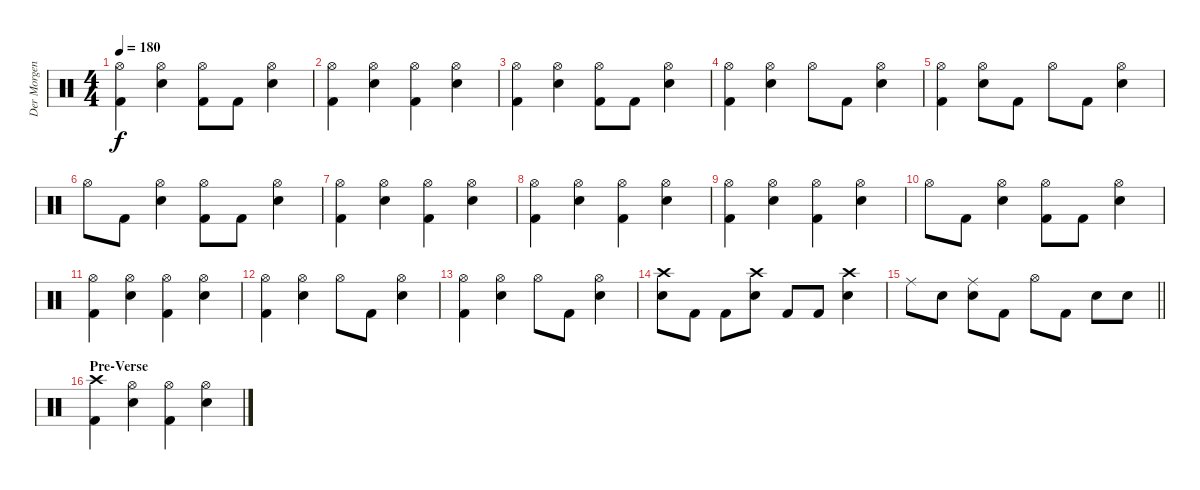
\track ("Der Morgenstern" "Der Morgen") {instrument percussion}
\staff {score}
\articulation defaults
\ts (4 4)
\tempo 180
\clef neutral
\ks c
("Hi-Hat (open)" "Kick (hit) 2").4{dy f} ("Hi-Hat (open)" "Electric Snare (hit)").4 ("Hi-Hat (open)" "Kick (hit) 2").8 "Kick (hit) 2".8 ("Hi-Hat (open)" "Electric Snare (hit)").4 |
("Hi-Hat (open)" "Kick (hit) 2").4 ("Hi-Hat (open)" "Electric Snare (hit)").4 ("Hi-Hat (open)" "Kick (hit) 2").4 ("Hi-Hat (open)" "Electric Snare (hit)").4 |
("Hi-Hat (open)" "Kick (hit) 2").4 ("Hi-Hat (open)" "Electric Snare (hit)").4 ("Hi-Hat (open)" "Kick (hit) 2").8 "Kick (hit) 2".8 ("Hi-Hat (open)" "Electric Snare (hit)").4 |
("Hi-Hat (open)" "Kick (hit) 2").4 ("Hi-Hat (open)" "Electric Snare (hit)").4 "Hi-Hat (open)".8 "Kick (hit) 2".8 ("Hi-Hat (open)" "Electric Snare (hit)").4 |
("Hi-Hat (open)" "Kick (hit) 2").4 ("Hi-Hat (open)" "Electric Snare (hit)").8 "Kick (hit) 2".8 "Hi-Hat (open)".8 "Kick (hit) 2".8 ("Hi-Hat (open)" "Electric Snare (hit)").4 |
"Hi-Hat (open)".8 "Kick (hit) 2".8 ("Hi-Hat (open)" "Electric Snare (hit)").4 ("Hi-Hat (open)" "Kick (hit) 2").8 "Kick (hit) 2".8 ("Hi-Hat (open)" "Electric Snare (hit)").4 |
("Hi-Hat (open)" "Kick (hit) 2").4 ("Hi-Hat (open)" "Electric Snare (hit)").4 ("Hi-Hat (open)" "Kick (hit) 2").4 ("Hi-Hat (open)" "Electric Snare (hit)").4 |
("Hi-Hat (open)" "Kick (hit) 2").4 ("Hi-Hat (open)" "Electric Snare (hit)").4 ("Hi-Hat (open)" "Kick (hit) 2").4 ("Hi-Hat (open)" "Electric Snare (hit)").4 |
("Hi-Hat (open)" "Kick (hit) 2").4 ("Hi-Hat (open)" "Electric Snare (hit)").4 ("Hi-Hat (open)" "Kick (hit) 2").4 ("Hi-Hat (open)" "Electric Snare (hit)").4 |
"Hi-Hat (open)".8 "Kick (hit) 2".8 ("Hi-Hat (open)" "Electric Snare (hit)").4 ("Hi-Hat (open)" "Kick (hit) 2").8 "Kick (hit) 2".8 ("Hi-Hat (open)" "Electric Snare (hit)").4 |
("Hi-Hat (open)" "Kick (hit) 2").4 ("Hi-Hat (open)" "Electric Snare (hit)").4 ("Hi-Hat (open)" "Kick (hit) 2").4 ("Hi-Hat (open)" "Electric Snare (hit)").4 |
("Hi-Hat (open)" "Kick (hit) 2").4 ("Hi-Hat (open)" "Electric Snare (hit)").4 "Hi-Hat (open)".8 "Kick (hit) 2".8 ("Hi-Hat (open)" "Electric Snare (hit)").4 |
("Hi-Hat (open)" "Kick (hit) 2").4 ("Hi-Hat (open)" "Electric Snare (hit)").4 "Hi-Hat (open)".8 "Kick (hit) 2".8 ("Hi-Hat (open)" "Electric Snare (hit)").4 |
("Crash high (hit)" "Electric Snare (hit)").8 "Kick (hit) 2".8 "Kick (hit) 2".8 ("Crash high (hit)" "Electric Snare (hit)").8 "Kick (hit) 2".8 "Kick (hit) 2".8 ("Crash high (hit)" "Electric Snare (hit)").4 |
\barLineRight lightlight "Ride (middle)".8 "Electric Snare (hit)".8
("Ride (middle)" "Electric Snare (hit)").8 "Kick (hit) 2".8 "Hi-Hat (open)".8 "Kick (hit) 2".8 "Electric Snare (hit)".8 "Electric Snare (hit)".8 |
\section ("" "Pre-Verse")
("Crash high (hit)" "Kick (hit) 2").4 ("Hi-Hat (open)" "Electric Snare (hit)").4 ("Hi-Hat (open)" "Kick (hit) 2").4 ("Hi-Hat (open)" "Electric Snare (hit)").4
